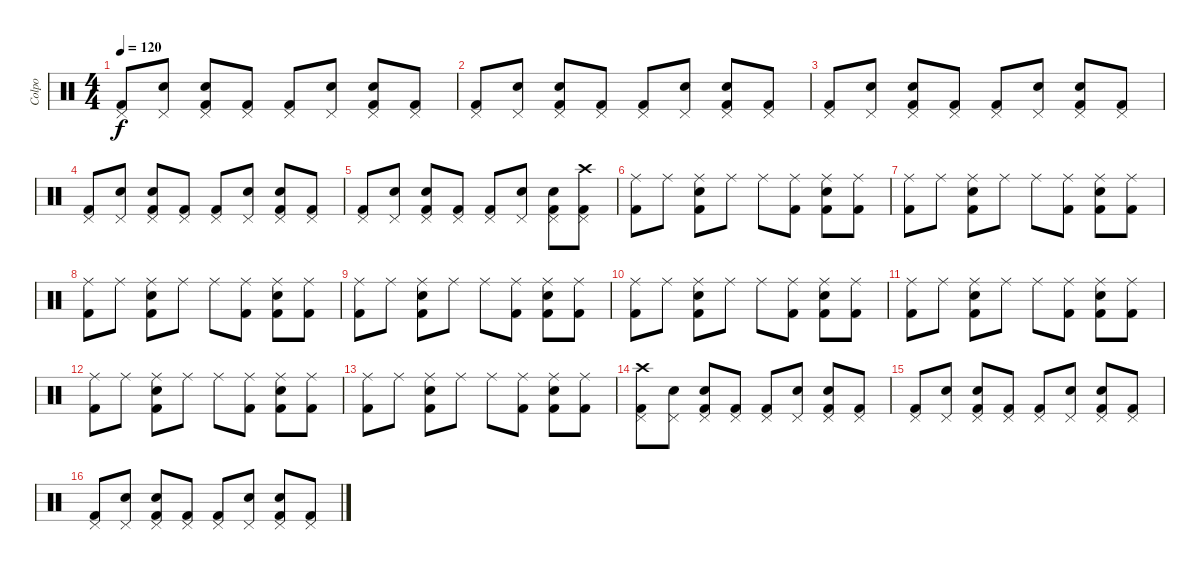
\track ("Colpo" "Colpo") {instrument percussion}
\staff {score}
\articulation defaults
\ts (4 4)
\tempo 120
\clef neutral
\ks c
("Pedal Hi-Hat (hit)" "Kick (hit) 2").8{dy f} ("Pedal Hi-Hat (hit)" "Snare (hit)").8 ("Pedal Hi-Hat (hit)" "Snare (hit) 2" "Kick (hit) 2").8 ("Pedal Hi-Hat (hit)" "Kick (hit) 2").8 ("Pedal Hi-Hat (hit)" "Kick (hit) 2").8 ("Pedal Hi-Hat (hit)" "Snare (hit)").8 ("Pedal Hi-Hat (hit)" "Snare (hit) 2" "Kick (hit) 2").8 ("Pedal Hi-Hat (hit)" "Kick (hit) 2").8 |
("Pedal Hi-Hat (hit)" "Kick (hit) 2").8 ("Pedal Hi-Hat (hit)" "Snare (hit)").8 ("Pedal Hi-Hat (hit)" "Snare (hit) 2" "Kick (hit) 2").8 ("Pedal Hi-Hat (hit)" "Kick (hit) 2").8 ("Pedal Hi-Hat (hit)" "Kick (hit) 2").8 ("Pedal Hi-Hat (hit)" "Snare (hit)").8 ("Pedal Hi-Hat (hit)" "Snare (hit) 2" "Kick (hit) 2").8 ("Pedal Hi-Hat (hit)" "Kick (hit) 2").8 |
("Pedal Hi-Hat (hit)" "Kick (hit) 2").8 ("Pedal Hi-Hat (hit)" "Snare (hit)").8 ("Pedal Hi-Hat (hit)" "Snare (hit) 2" "Kick (hit) 2").8 ("Pedal Hi-Hat (hit)" "Kick (hit) 2").8 ("Pedal Hi-Hat (hit)" "Kick (hit) 2").8 ("Pedal Hi-Hat (hit)" "Snare (hit)").8 ("Pedal Hi-Hat (hit)" "Snare (hit) 2" "Kick (hit) 2").8 ("Pedal Hi-Hat (hit)" "Kick (hit) 2").8 |
("Pedal Hi-Hat (hit)" "Kick (hit) 2").8 ("Pedal Hi-Hat (hit)" "Snare (hit)").8 ("Pedal Hi-Hat (hit)" "Snare (hit) 2" "Kick (hit) 2").8 ("Pedal Hi-Hat (hit)" "Kick (hit) 2").8 ("Pedal Hi-Hat (hit)" "Kick (hit) 2").8 ("Pedal Hi-Hat (hit)" "Snare (hit)").8 ("Pedal Hi-Hat (hit)" "Snare (hit) 2" "Kick (hit) 2").8 ("Pedal Hi-Hat (hit)" "Kick (hit) 2").8 |
("Pedal Hi-Hat (hit)" "Kick (hit) 2").8 ("Pedal Hi-Hat (hit)" "Snare (hit)").8 ("Pedal Hi-Hat (hit)" "Snare (hit) 2" "Kick (hit) 2").8 ("Pedal Hi-Hat (hit)" "Kick (hit) 2").8 ("Pedal Hi-Hat (hit)" "Kick (hit) 2").8 ("Pedal Hi-Hat (hit)" "Snare (hit)").8 ("Pedal Hi-Hat (hit)" "Snare (hit) 2" "Kick (hit) 2").8 ("Crash high (hit)" "Pedal Hi-Hat (hit)" "Kick (hit) 2").8 |
("Ride (middle)" "Kick (hit) 2").8 "Ride (middle)".8 ("Ride (middle)" "Snare (hit) 2" "Kick (hit) 2").8 "Ride (middle)".8 "Ride (middle)".8 ("Ride (middle)" "Kick (hit) 2").8 ("Ride (middle)" "Snare (hit) 2" "Kick (hit) 2").8 ("Ride (middle)" "Kick (hit) 2").8 |
("Ride (middle)" "Kick (hit) 2").8 "Ride (middle)".8 ("Ride (middle)" "Snare (hit) 2" "Kick (hit) 2").8 "Ride (middle)".8 "Ride (middle)".8 ("Ride (middle)" "Kick (hit) 2").8 ("Ride (middle)" "Snare (hit) 2" "Kick (hit) 2").8 ("Ride (middle)" "Kick (hit) 2").8 |
("Ride (middle)" "Kick (hit) 2").8 "Ride (middle)".8 ("Ride (middle)" "Snare (hit) 2" "Kick (hit) 2").8 "Ride (middle)".8 "Ride (middle)".8 ("Ride (middle)" "Kick (hit) 2").8 ("Ride (middle)" "Snare (hit) 2" "Kick (hit) 2").8 ("Ride (middle)" "Kick (hit) 2").8 |
("Ride (middle)" "Kick (hit) 2").8 "Ride (middle)".8 ("Ride (middle)" "Snare (hit) 2" "Kick (hit) 2").8 "Ride (middle)".8 "Ride (middle)".8 ("Ride (middle)" "Kick (hit) 2").8 ("Ride (middle)" "Snare (hit) 2" "Kick (hit) 2").8 ("Ride (middle)" "Kick (hit) 2").8 |
("Ride (middle)" "Kick (hit) 2").8 "Ride (middle)".8 ("Ride (middle)" "Snare (hit) 2" "Kick (hit) 2").8 "Ride (middle)".8 "Ride (middle)".8 ("Ride (middle)" "Kick (hit) 2").8 ("Ride (middle)" "Snare (hit) 2" "Kick (hit) 2").8 ("Ride (middle)" "Kick (hit) 2").8 |
("Ride (middle)" "Kick (hit) 2").8 "Ride (middle)".8 ("Ride (middle)" "Snare (hit) 2" "Kick (hit) 2").8 "Ride (middle)".8 "Ride (middle)".8 ("Ride (middle)" "Kick (hit) 2").8 ("Ride (middle)" "Snare (hit) 2" "Kick (hit) 2").8 ("Ride (middle)" "Kick (hit) 2").8 |
("Ride (middle)" "Kick (hit) 2").8 "Ride (middle)".8 ("Ride (middle)" "Snare (hit) 2" "Kick (hit) 2").8 "Ride (middle)".8 "Ride (middle)".8 ("Ride (middle)" "Kick (hit) 2").8 ("Ride (middle)" "Snare (hit) 2" "Kick (hit) 2").8 ("Ride (middle)" "Kick (hit) 2").8 |
("Ride (middle)" "Kick (hit) 2").8 "Ride (middle)".8 ("Ride (middle)" "Snare (hit) 2" "Kick (hit) 2").8 "Ride (middle)".8 "Ride (middle)".8 ("Ride (middle)" "Kick (hit) 2").8 ("Ride (middle)" "Snare (hit) 2" "Kick (hit) 2").8 ("Ride (middle)" "Kick (hit) 2").8 |
("Crash high (hit)" "Pedal Hi-Hat (hit)" "Kick (hit) 2").8 ("Pedal Hi-Hat (hit)" "Snare (hit)").8 ("Pedal Hi-Hat (hit)" "Snare (hit) 2" "Kick (hit) 2").8 ("Pedal Hi-Hat (hit)" "Kick (hit) 2").8 ("Pedal Hi-Hat (hit)" "Kick (hit) 2").8 ("Pedal Hi-Hat (hit)" "Snare (hit)").8 ("Pedal Hi-Hat (hit)" "Snare (hit) 2" "Kick (hit) 2").8 ("Pedal Hi-Hat (hit)" "Kick (hit) 2").8 |
("Pedal Hi-Hat (hit)" "Kick (hit) 2").8 ("Pedal Hi-Hat (hit)" "Snare (hit)").8 ("Pedal Hi-Hat (hit)" "Snare (hit) 2" "Kick (hit) 2").8 ("Pedal Hi-Hat (hit)" "Kick (hit) 2").8 ("Pedal Hi-Hat (hit)" "Kick (hit) 2").8 ("Pedal Hi-Hat (hit)" "Snare (hit)").8 ("Pedal Hi-Hat (hit)" "Snare (hit) 2" "Kick (hit) 2").8 ("Pedal Hi-Hat (hit)" "Kick (hit) 2").8 |
("Pedal Hi-Hat (hit)" "Kick (hit) 2").8 ("Pedal Hi-Hat (hit)" "Snare (hit)").8 ("Pedal Hi-Hat (hit)" "Snare (hit) 2" "Kick (hit) 2").8 ("Pedal Hi-Hat (hit)" "Kick (hit) 2").8 ("Pedal Hi-Hat (hit)" "Kick (hit) 2").8 ("Pedal Hi-Hat (hit)" "Snare (hit)").8 ("Pedal Hi-Hat (hit)" "Snare (hit) 2" "Kick (hit) 2").8 ("Pedal Hi-Hat (hit)" "Kick (hit) 2").8
